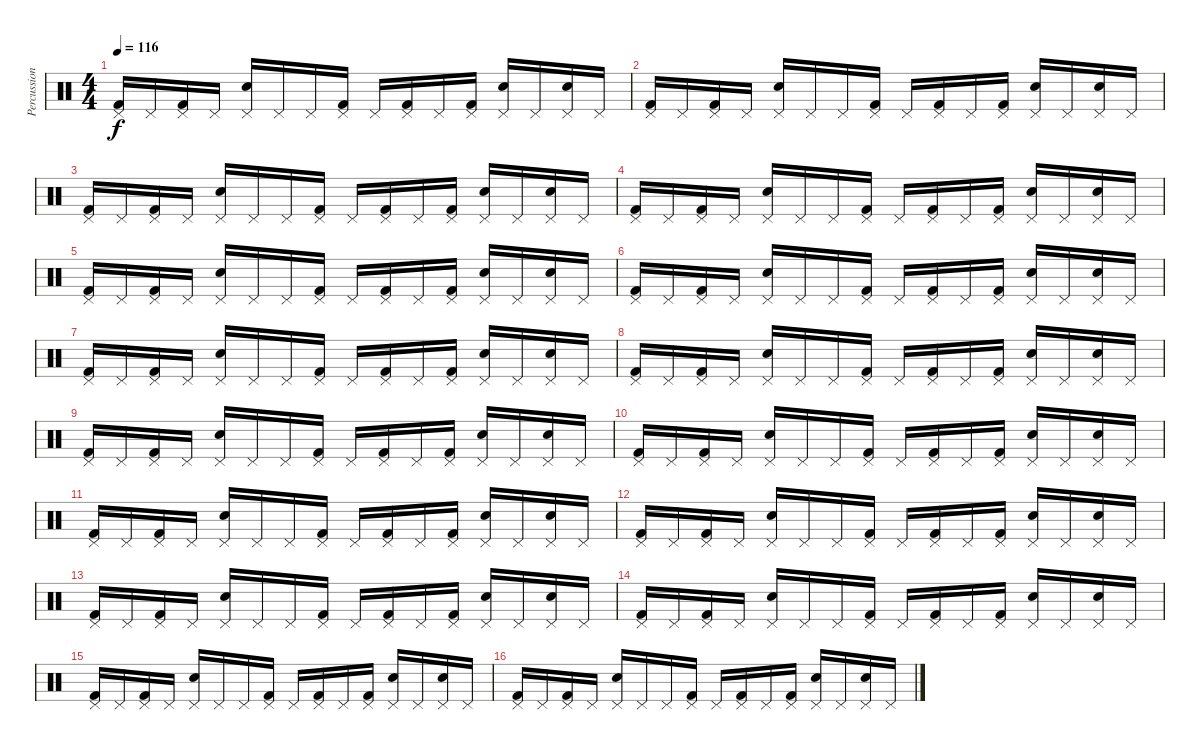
\track ("Percussions" "Percussion") {instrument percussion}
\staff {score}
\articulation defaults
\ts (4 4)
\tempo 116
\clef neutral
\ks c
("Pedal Hi-Hat (hit)" "Kick (hit) 2").16{dy f} "Pedal Hi-Hat (hit)".16 ("Pedal Hi-Hat (hit)" "Kick (hit) 2").16 "Pedal Hi-Hat (hit)".16 ("Pedal Hi-Hat (hit)" "Snare (hit) 2").16 "Pedal Hi-Hat (hit)".16 "Pedal Hi-Hat (hit)".16 ("Pedal Hi-Hat (hit)" "Kick (hit) 2").16 "Pedal Hi-Hat (hit)".16 ("Pedal Hi-Hat (hit)" "Kick (hit) 2").16 "Pedal Hi-Hat (hit)".16 ("Pedal Hi-Hat (hit)" "Kick (hit) 2").16 ("Pedal Hi-Hat (hit)" "Snare (hit) 2").16 "Pedal Hi-Hat (hit)".16 ("Pedal Hi-Hat (hit)" "Snare (hit) 2").16 "Pedal Hi-Hat (hit)".16 |
("Pedal Hi-Hat (hit)" "Kick (hit) 2").16 "Pedal Hi-Hat (hit)".16 ("Pedal Hi-Hat (hit)" "Kick (hit) 2").16 "Pedal Hi-Hat (hit)".16 ("Pedal Hi-Hat (hit)" "Snare (hit) 2").16 "Pedal Hi-Hat (hit)".16 "Pedal Hi-Hat (hit)".16 ("Pedal Hi-Hat (hit)" "Kick (hit) 2").16 "Pedal Hi-Hat (hit)".16 ("Pedal Hi-Hat (hit)" "Kick (hit) 2").16 "Pedal Hi-Hat (hit)".16 ("Pedal Hi-Hat (hit)" "Kick (hit) 2").16 ("Pedal Hi-Hat (hit)" "Snare (hit) 2").16 "Pedal Hi-Hat (hit)".16 ("Pedal Hi-Hat (hit)" "Snare (hit) 2").16 "Pedal Hi-Hat (hit)".16 |
("Pedal Hi-Hat (hit)" "Kick (hit) 2").16 "Pedal Hi-Hat (hit)".16 ("Pedal Hi-Hat (hit)" "Kick (hit) 2").16 "Pedal Hi-Hat (hit)".16 ("Pedal Hi-Hat (hit)" "Snare (hit) 2").16 "Pedal Hi-Hat (hit)".16 "Pedal Hi-Hat (hit)".16 ("Pedal Hi-Hat (hit)" "Kick (hit) 2").16 "Pedal Hi-Hat (hit)".16 ("Pedal Hi-Hat (hit)" "Kick (hit) 2").16 "Pedal Hi-Hat (hit)".16 ("Pedal Hi-Hat (hit)" "Kick (hit) 2").16 ("Pedal Hi-Hat (hit)" "Snare (hit) 2").16 "Pedal Hi-Hat (hit)".16 ("Pedal Hi-Hat (hit)" "Snare (hit) 2").16 "Pedal Hi-Hat (hit)".16 |
("Pedal Hi-Hat (hit)" "Kick (hit) 2").16 "Pedal Hi-Hat (hit)".16 ("Pedal Hi-Hat (hit)" "Kick (hit) 2").16 "Pedal Hi-Hat (hit)".16 ("Pedal Hi-Hat (hit)" "Snare (hit) 2").16 "Pedal Hi-Hat (hit)".16 "Pedal Hi-Hat (hit)".16 ("Pedal Hi-Hat (hit)" "Kick (hit) 2").16 "Pedal Hi-Hat (hit)".16 ("Pedal Hi-Hat (hit)" "Kick (hit) 2").16 "Pedal Hi-Hat (hit)".16 ("Pedal Hi-Hat (hit)" "Kick (hit) 2").16 ("Pedal Hi-Hat (hit)" "Snare (hit) 2").16 "Pedal Hi-Hat (hit)".16 ("Pedal Hi-Hat (hit)" "Snare (hit) 2").16 "Pedal Hi-Hat (hit)".16 |
("Pedal Hi-Hat (hit)" "Kick (hit) 2").16 "Pedal Hi-Hat (hit)".16 ("Pedal Hi-Hat (hit)" "Kick (hit) 2").16 "Pedal Hi-Hat (hit)".16 ("Pedal Hi-Hat (hit)" "Snare (hit) 2").16 "Pedal Hi-Hat (hit)".16 "Pedal Hi-Hat (hit)".16 ("Pedal Hi-Hat (hit)" "Kick (hit) 2").16 "Pedal Hi-Hat (hit)".16 ("Pedal Hi-Hat (hit)" "Kick (hit) 2").16 "Pedal Hi-Hat (hit)".16 ("Pedal Hi-Hat (hit)" "Kick (hit) 2").16 ("Pedal Hi-Hat (hit)" "Snare (hit) 2").16 "Pedal Hi-Hat (hit)".16 ("Pedal Hi-Hat (hit)" "Snare (hit) 2").16 "Pedal Hi-Hat (hit)".16 |
("Pedal Hi-Hat (hit)" "Kick (hit) 2").16 "Pedal Hi-Hat (hit)".16 ("Pedal Hi-Hat (hit)" "Kick (hit) 2").16 "Pedal Hi-Hat (hit)".16 ("Pedal Hi-Hat (hit)" "Snare (hit) 2").16 "Pedal Hi-Hat (hit)".16 "Pedal Hi-Hat (hit)".16 ("Pedal Hi-Hat (hit)" "Kick (hit) 2").16 "Pedal Hi-Hat (hit)".16 ("Pedal Hi-Hat (hit)" "Kick (hit) 2").16 "Pedal Hi-Hat (hit)".16 ("Pedal Hi-Hat (hit)" "Kick (hit) 2").16 ("Pedal Hi-Hat (hit)" "Snare (hit) 2").16 "Pedal Hi-Hat (hit)".16 ("Pedal Hi-Hat (hit)" "Snare (hit) 2").16 "Pedal Hi-Hat (hit)".16 |
("Pedal Hi-Hat (hit)" "Kick (hit) 2").16 "Pedal Hi-Hat (hit)".16 ("Pedal Hi-Hat (hit)" "Kick (hit) 2").16 "Pedal Hi-Hat (hit)".16 ("Pedal Hi-Hat (hit)" "Snare (hit) 2").16 "Pedal Hi-Hat (hit)".16 "Pedal Hi-Hat (hit)".16 ("Pedal Hi-Hat (hit)" "Kick (hit) 2").16 "Pedal Hi-Hat (hit)".16 ("Pedal Hi-Hat (hit)" "Kick (hit) 2").16 "Pedal Hi-Hat (hit)".16 ("Pedal Hi-Hat (hit)" "Kick (hit) 2").16 ("Pedal Hi-Hat (hit)" "Snare (hit) 2").16 "Pedal Hi-Hat (hit)".16 ("Pedal Hi-Hat (hit)" "Snare (hit) 2").16 "Pedal Hi-Hat (hit)".16 |
("Pedal Hi-Hat (hit)" "Kick (hit) 2").16 "Pedal Hi-Hat (hit)".16 ("Pedal Hi-Hat (hit)" "Kick (hit) 2").16 "Pedal Hi-Hat (hit)".16 ("Pedal Hi-Hat (hit)" "Snare (hit) 2").16 "Pedal Hi-Hat (hit)".16 "Pedal Hi-Hat (hit)".16 ("Pedal Hi-Hat (hit)" "Kick (hit) 2").16 "Pedal Hi-Hat (hit)".16 ("Pedal Hi-Hat (hit)" "Kick (hit) 2").16 "Pedal Hi-Hat (hit)".16 ("Pedal Hi-Hat (hit)" "Kick (hit) 2").16 ("Pedal Hi-Hat (hit)" "Snare (hit) 2").16 "Pedal Hi-Hat (hit)".16 ("Pedal Hi-Hat (hit)" "Snare (hit) 2").16 "Pedal Hi-Hat (hit)".16 |
("Pedal Hi-Hat (hit)" "Kick (hit) 2").16 "Pedal Hi-Hat (hit)".16 ("Pedal Hi-Hat (hit)" "Kick (hit) 2").16 "Pedal Hi-Hat (hit)".16 ("Pedal Hi-Hat (hit)" "Snare (hit) 2").16 "Pedal Hi-Hat (hit)".16 "Pedal Hi-Hat (hit)".16 ("Pedal Hi-Hat (hit)" "Kick (hit) 2").16 "Pedal Hi-Hat (hit)".16 ("Pedal Hi-Hat (hit)" "Kick (hit) 2").16 "Pedal Hi-Hat (hit)".16 ("Pedal Hi-Hat (hit)" "Kick (hit) 2").16 ("Pedal Hi-Hat (hit)" "Snare (hit) 2").16 "Pedal Hi-Hat (hit)".16 ("Pedal Hi-Hat (hit)" "Snare (hit) 2").16 "Pedal Hi-Hat (hit)".16 |
("Pedal Hi-Hat (hit)" "Kick (hit) 2").16 "Pedal Hi-Hat (hit)".16 ("Pedal Hi-Hat (hit)" "Kick (hit) 2").16 "Pedal Hi-Hat (hit)".16 ("Pedal Hi-Hat (hit)" "Snare (hit) 2").16 "Pedal Hi-Hat (hit)".16 "Pedal Hi-Hat (hit)".16 ("Pedal Hi-Hat (hit)" "Kick (hit) 2").16 "Pedal Hi-Hat (hit)".16 ("Pedal Hi-Hat (hit)" "Kick (hit) 2").16 "Pedal Hi-Hat (hit)".16 ("Pedal Hi-Hat (hit)" "Kick (hit) 2").16 ("Pedal Hi-Hat (hit)" "Snare (hit) 2").16 "Pedal Hi-Hat (hit)".16 ("Pedal Hi-Hat (hit)" "Snare (hit) 2").16 "Pedal Hi-Hat (hit)".16 |
("Pedal Hi-Hat (hit)" "Kick (hit) 2").16 "Pedal Hi-Hat (hit)".16 ("Pedal Hi-Hat (hit)" "Kick (hit) 2").16 "Pedal Hi-Hat (hit)".16 ("Pedal Hi-Hat (hit)" "Snare (hit) 2").16 "Pedal Hi-Hat (hit)".16 "Pedal Hi-Hat (hit)".16 ("Pedal Hi-Hat (hit)" "Kick (hit) 2").16 "Pedal Hi-Hat (hit)".16 ("Pedal Hi-Hat (hit)" "Kick (hit) 2").16 "Pedal Hi-Hat (hit)".16 ("Pedal Hi-Hat (hit)" "Kick (hit) 2").16 ("Pedal Hi-Hat (hit)" "Snare (hit) 2").16 "Pedal Hi-Hat (hit)".16 ("Pedal Hi-Hat (hit)" "Snare (hit) 2").16 "Pedal Hi-Hat (hit)".16 |
("Pedal Hi-Hat (hit)" "Kick (hit) 2").16 "Pedal Hi-Hat (hit)".16 ("Pedal Hi-Hat (hit)" "Kick (hit) 2").16 "Pedal Hi-Hat (hit)".16 ("Pedal Hi-Hat (hit)" "Snare (hit) 2").16 "Pedal Hi-Hat (hit)".16 "Pedal Hi-Hat (hit)".16 ("Pedal Hi-Hat (hit)" "Kick (hit) 2").16 "Pedal Hi-Hat (hit)".16 ("Pedal Hi-Hat (hit)" "Kick (hit) 2").16 "Pedal Hi-Hat (hit)".16 ("Pedal Hi-Hat (hit)" "Kick (hit) 2").16 ("Pedal Hi-Hat (hit)" "Snare (hit) 2").16 "Pedal Hi-Hat (hit)".16 ("Pedal Hi-Hat (hit)" "Snare (hit) 2").16 "Pedal Hi-Hat (hit)".16 |
("Pedal Hi-Hat (hit)" "Kick (hit) 2").16 "Pedal Hi-Hat (hit)".16 ("Pedal Hi-Hat (hit)" "Kick (hit) 2").16 "Pedal Hi-Hat (hit)".16 ("Pedal Hi-Hat (hit)" "Snare (hit) 2").16 "Pedal Hi-Hat (hit)".16 "Pedal Hi-Hat (hit)".16 ("Pedal Hi-Hat (hit)" "Kick (hit) 2").16 "Pedal Hi-Hat (hit)".16 ("Pedal Hi-Hat (hit)" "Kick (hit) 2").16 "Pedal Hi-Hat (hit)".16 ("Pedal Hi-Hat (hit)" "Kick (hit) 2").16 ("Pedal Hi-Hat (hit)" "Snare (hit) 2").16 "Pedal Hi-Hat (hit)".16 ("Pedal Hi-Hat (hit)" "Snare (hit) 2").16 "Pedal Hi-Hat (hit)".16 |
("Pedal Hi-Hat (hit)" "Kick (hit) 2").16 "Pedal Hi-Hat (hit)".16 ("Pedal Hi-Hat (hit)" "Kick (hit) 2").16 "Pedal Hi-Hat (hit)".16 ("Pedal Hi-Hat (hit)" "Snare (hit) 2").16 "Pedal Hi-Hat (hit)".16 "Pedal Hi-Hat (hit)".16 ("Pedal Hi-Hat (hit)" "Kick (hit) 2").16 "Pedal Hi-Hat (hit)".16 ("Pedal Hi-Hat (hit)" "Kick (hit) 2").16 "Pedal Hi-Hat (hit)".16 ("Pedal Hi-Hat (hit)" "Kick (hit) 2").16 ("Pedal Hi-Hat (hit)" "Snare (hit) 2").16 "Pedal Hi-Hat (hit)".16 ("Pedal Hi-Hat (hit)" "Snare (hit) 2").16 "Pedal Hi-Hat (hit)".16 |
("Pedal Hi-Hat (hit)" "Kick (hit) 2").16 "Pedal Hi-Hat (hit)".16 ("Pedal Hi-Hat (hit)" "Kick (hit) 2").16 "Pedal Hi-Hat (hit)".16 ("Pedal Hi-Hat (hit)" "Snare (hit) 2").16 "Pedal Hi-Hat (hit)".16 "Pedal Hi-Hat (hit)".16 ("Pedal Hi-Hat (hit)" "Kick (hit) 2").16 "Pedal Hi-Hat (hit)".16 ("Pedal Hi-Hat (hit)" "Kick (hit) 2").16 "Pedal Hi-Hat (hit)".16 ("Pedal Hi-Hat (hit)" "Kick (hit) 2").16 ("Pedal Hi-Hat (hit)" "Snare (hit) 2").16 "Pedal Hi-Hat (hit)".16 ("Pedal Hi-Hat (hit)" "Snare (hit) 2").16 "Pedal Hi-Hat (hit)".16 |
("Pedal Hi-Hat (hit)" "Kick (hit) 2").16 "Pedal Hi-Hat (hit)".16 ("Pedal Hi-Hat (hit)" "Kick (hit) 2").16 "Pedal Hi-Hat (hit)".16 ("Pedal Hi-Hat (hit)" "Snare (hit) 2").16 "Pedal Hi-Hat (hit)".16 "Pedal Hi-Hat (hit)".16 ("Pedal Hi-Hat (hit)" "Kick (hit) 2").16 "Pedal Hi-Hat (hit)".16 ("Pedal Hi-Hat (hit)" "Kick (hit) 2").16 "Pedal Hi-Hat (hit)".16 ("Pedal Hi-Hat (hit)" "Kick (hit) 2").16 ("Pedal Hi-Hat (hit)" "Snare (hit) 2").16 "Pedal Hi-Hat (hit)".16 ("Pedal Hi-Hat (hit)" "Snare (hit) 2").16 "Pedal Hi-Hat (hit)".16
